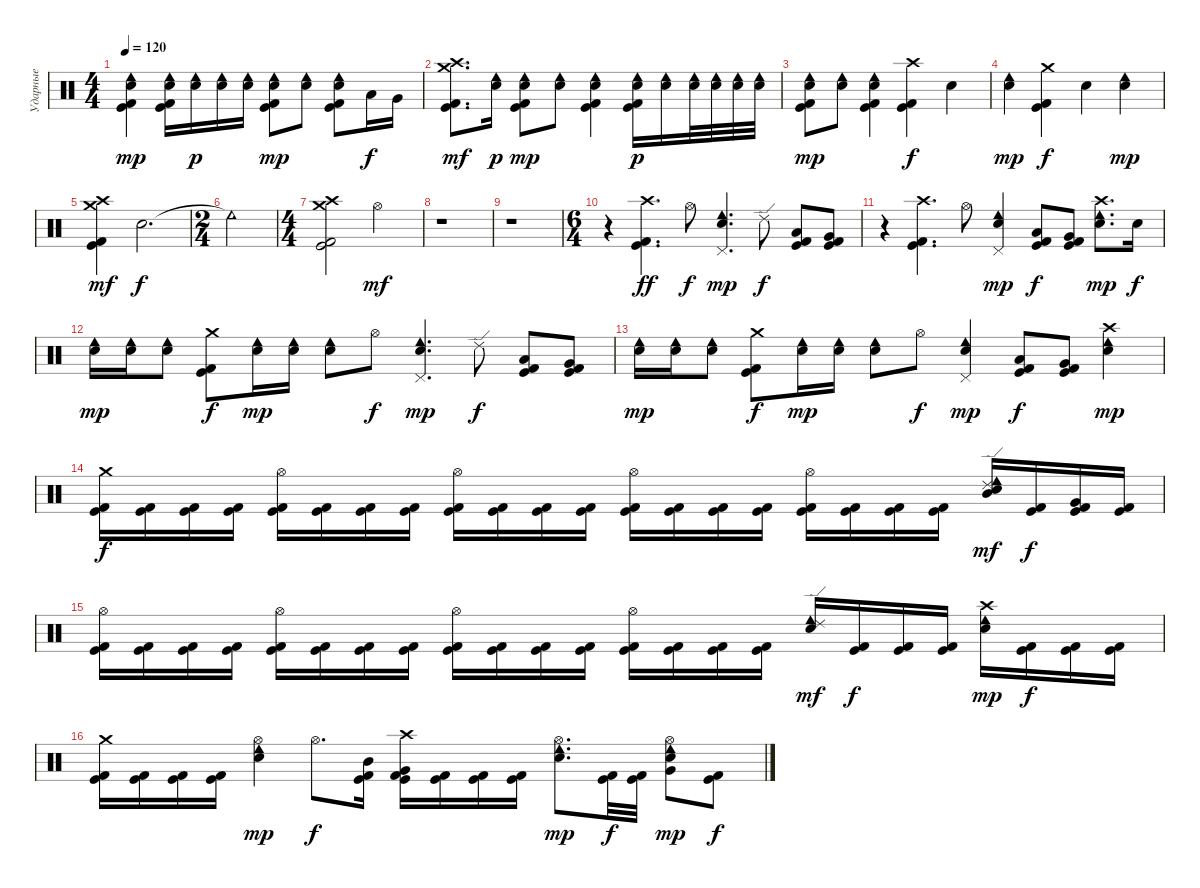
\track ("Ударные" "Ударные") {instrument percussion}
\staff {score}
\articulation defaults
\ts (4 4)
\tempo 120
\clef neutral
\ks c
("Kick (hit) 2" "Kick (hit)" "Electric Snare (hit)" "Cowbell low (hit)").4{dy mp} ("Kick (hit) 2" "Kick (hit)" "Electric Snare (hit)" "Cowbell low (hit)").16 ("Electric Snare (hit)" "Cowbell low (hit)").16{dy p} ("Electric Snare (hit)" "Cowbell low (hit)").16 ("Electric Snare (hit)" "Cowbell low (hit)").16 ("Kick (hit) 2" "Kick (hit)" "Electric Snare (hit)" "Cowbell low (hit)").8{dy mp} ("Electric Snare (hit)" "Cowbell low (hit)").8 ("Kick (hit) 2" "Kick (hit)" "Electric Snare (hit)" "Cowbell low (hit)").8 "Low Tom (hit)".16{dy f} "Very Low Tom (hit)".16 |
("Kick (hit) 2" "Kick (hit)" "Crash high (hit)" "Crash medium (hit)").8{d dy mf} ("Electric Snare (hit)" "Cowbell low (hit)").16{dy p} ("Kick (hit) 2" "Kick (hit)" "Electric Snare (hit)" "Cowbell low (hit)").8{dy mp} ("Electric Snare (hit)" "Cowbell low (hit)").8 ("Kick (hit) 2" "Kick (hit)" "Electric Snare (hit)" "Cowbell low (hit)").4 ("Kick (hit) 2" "Kick (hit)" "Electric Snare (hit)" "Cowbell low (hit)").16{dy p} ("Electric Snare (hit)" "Cowbell low (hit)").16 ("Electric Snare (hit)" "Cowbell low (hit)").32 ("Electric Snare (hit)" "Cowbell low (hit)").32 ("Electric Snare (hit)" "Cowbell low (hit)").32 ("Electric Snare (hit)" "Cowbell low (hit)").32 |
("Kick (hit) 2" "Kick (hit)" "Electric Snare (hit)" "Cowbell low (hit)").8{dy mp} ("Electric Snare (hit)" "Cowbell low (hit)").8 ("Kick (hit) 2" "Kick (hit)" "Electric Snare (hit)" "Cowbell low (hit)").4 ("Kick (hit) 2" "Kick (hit)" "Crash high (hit)").4{dy f} "Snare (hit)".4 |
("Electric Snare (hit)" "Cowbell low (hit)").4{dy mp} ("Kick (hit) 2" "Kick (hit)" "Crash medium (hit)").4{dy f} "Snare (hit)".4 ("Electric Snare (hit)" "Cowbell low (hit)").4{dy mp} |
("Kick (hit) 2" "Kick (hit)" "Crash high (hit)" "Crash medium (hit)").4{dy mf} "Snare (hit)".2{d dy f} |
\ts (2 4)
"Cowbell low (hit)"{t}.2 |
\ts (4 4)
("Kick (hit) 2" "Kick (hit)" "Crash high (hit)" "Crash medium (hit)").2 "Hi-Hat (open)".2{dy mf} |
r.1 |
r.1 |
\ts (6 4)
r.4 ("Kick (hit) 2" "Kick (hit)" "Crash high (hit)").4{d dy ff} "Hi-Hat (open)".8{dy f} ("Cowbell low (hit)" "Electric Snare (hit)" "Pedal Hi-Hat (hit)").4{d dy mp} "Ride (edge) 2".8{dy f} ("Kick (hit) 2" "Kick (hit)" "Low Tom (hit)").8 ("Kick (hit) 2" "Kick (hit)" "Very Low Tom (hit)").8 |
r.4 ("Kick (hit) 2" "Kick (hit)" "Crash high (hit)").4{d} "Hi-Hat (open)".8 ("Cowbell low (hit)" "Electric Snare (hit)" "Pedal Hi-Hat (hit)").4{dy mp} ("Kick (hit) 2" "Kick (hit)" "Low Tom (hit)").8{dy f} ("Kick (hit) 2" "Kick (hit)" "Very Low Tom (hit)").8 ("Cowbell low (hit)" "Electric Snare (hit)" "Crash high (hit)").8{d dy mp} "Snare (hit)".16{dy f} |
("Cowbell low (hit)" "Electric Snare (hit)").16{dy mp} ("Cowbell low (hit)" "Electric Snare (hit)").16 ("Cowbell low (hit)" "Electric Snare (hit)").8 ("Kick (hit) 2" "Kick (hit)" "Crash medium (hit)").8{dy f} ("Cowbell low (hit)" "Electric Snare (hit)").16{dy mp} ("Cowbell low (hit)" "Electric Snare (hit)").16 ("Cowbell low (hit)" "Electric Snare (hit)").8 "Hi-Hat (open)".8{dy f} ("Cowbell low (hit)" "Electric Snare (hit)" "Pedal Hi-Hat (hit)").4{d dy mp} "Ride (edge) 2".8{dy f} ("Kick (hit) 2" "Kick (hit)" "Low Tom (hit)").8 ("Kick (hit) 2" "Kick (hit)" "Very Low Tom (hit)").8 |
("Cowbell low (hit)" "Electric Snare (hit)").16{dy mp} ("Cowbell low (hit)" "Electric Snare (hit)").16 ("Cowbell low (hit)" "Electric Snare (hit)").8 ("Kick (hit) 2" "Kick (hit)" "Crash medium (hit)").8{dy f} ("Cowbell low (hit)" "Electric Snare (hit)").16{dy mp} ("Cowbell low (hit)" "Electric Snare (hit)").16 ("Cowbell low (hit)" "Electric Snare (hit)").8 "Hi-Hat (open)".8{dy f} ("Cowbell low (hit)" "Electric Snare (hit)" "Pedal Hi-Hat (hit)").4{dy mp} ("Kick (hit) 2" "Kick (hit)" "Low Tom (hit)").8{dy f} ("Kick (hit) 2" "Kick (hit)" "Very Low Tom (hit)").8 ("Cowbell low (hit)" "Electric Snare (hit)" "Crash high (hit)").4{dy mp} |
("Kick (hit) 2" "Kick (hit)" "Crash medium (hit)").16{dy f} ("Kick (hit) 2" "Kick (hit)").16 ("Kick (hit) 2" "Kick (hit)").16 ("Kick (hit) 2" "Kick (hit)").16 ("Kick (hit) 2" "Kick (hit)" "Hi-Hat (open)").16 ("Kick (hit) 2" "Kick (hit)").16 ("Kick (hit) 2" "Kick (hit)").16 ("Kick (hit) 2" "Kick (hit)").16 ("Kick (hit) 2" "Kick (hit)" "Hi-Hat (open)").16 ("Kick (hit) 2" "Kick (hit)").16 ("Kick (hit) 2" "Kick (hit)").16 ("Kick (hit) 2" "Kick (hit)").16 ("Kick (hit) 2" "Kick (hit)" "Hi-Hat (open)").16 ("Kick (hit) 2" "Kick (hit)").16 ("Kick (hit) 2" "Kick (hit)").16 ("Kick (hit) 2" "Kick (hit)").16 ("Kick (hit) 2" "Kick (hit)" "Hi-Hat (open)").16 ("Kick (hit) 2" "Kick (hit)").16 ("Kick (hit) 2" "Kick (hit)").16 ("Kick (hit) 2" "Kick (hit)").16 ("Cowbell low (hit)" "Electric Snare (hit)" "Mid Tom (hit)" "Ride (edge) 2").16{dy mf} ("Kick (hit) 2" "Kick (hit)").16{dy f} ("Kick (hit) 2" "Kick (hit)" "Very Low Tom (hit)").16 ("Kick (hit) 2" "Kick (hit)").16 |
("Kick (hit) 2" "Kick (hit)" "Hi-Hat (open)").16 ("Kick (hit) 2" "Kick (hit)").16 ("Kick (hit) 2" "Kick (hit)").16 ("Kick (hit) 2" "Kick (hit)").16 ("Kick (hit) 2" "Kick (hit)" "Hi-Hat (open)").16 ("Kick (hit) 2" "Kick (hit)").16 ("Kick (hit) 2" "Kick (hit)").16 ("Kick (hit) 2" "Kick (hit)").16 ("Kick (hit) 2" "Kick (hit)" "Hi-Hat (open)").16 ("Kick (hit) 2" "Kick (hit)").16 ("Kick (hit) 2" "Kick (hit)").16 ("Kick (hit) 2" "Kick (hit)").16 ("Kick (hit) 2" "Kick (hit)" "Hi-Hat (open)").16 ("Kick (hit) 2" "Kick (hit)").16 ("Kick (hit) 2" "Kick (hit)").16 ("Kick (hit) 2" "Kick (hit)").16 ("Cowbell low (hit)" "Electric Snare (hit)" "Ride (edge) 2").16{dy mf} ("Kick (hit) 2" "Kick (hit)").16{dy f} ("Kick (hit) 2" "Kick (hit)").16 ("Kick (hit) 2" "Kick (hit)").16 ("Cowbell low (hit)" "Electric Snare (hit)" "Crash high (hit)").16{dy mp} ("Kick (hit) 2" "Kick (hit)").16{dy f} ("Kick (hit) 2" "Kick (hit)").16 ("Kick (hit) 2" "Kick (hit)").16 |
("Kick (hit) 2" "Kick (hit)" "Crash medium (hit)").16 ("Kick (hit) 2" "Kick (hit)").16 ("Kick (hit) 2" "Kick (hit)").16 ("Kick (hit) 2" "Kick (hit)").16 ("Cowbell low (hit)" "Electric Snare (hit)" "Hi-Hat (open)").4{dy mp} "Hi-Hat (open)".8{d dy f} ("Kick (hit) 2" "Kick (hit)" "Mid Tom (hit)").16 ("Kick (hit) 2" "Kick (hit)" "Very Low Tom (hit)" "Crash high (hit)").16 ("Kick (hit) 2" "Kick (hit)").16 ("Kick (hit) 2" "Kick (hit)").16 ("Kick (hit) 2" "Kick (hit)").16 ("Cowbell low (hit)" "Electric Snare (hit)" "Hi-Hat (open)").8{d dy mp} ("Kick (hit) 2" "Kick (hit)").32{dy f} ("Kick (hit) 2" "Kick (hit)").32 ("Cowbell low (hit)" "Electric Snare (hit)" "Hi-Hat (open)" "Very Low Tom (hit)").8{dy mp} ("Kick (hit) 2" "Kick (hit)").8{dy f}
